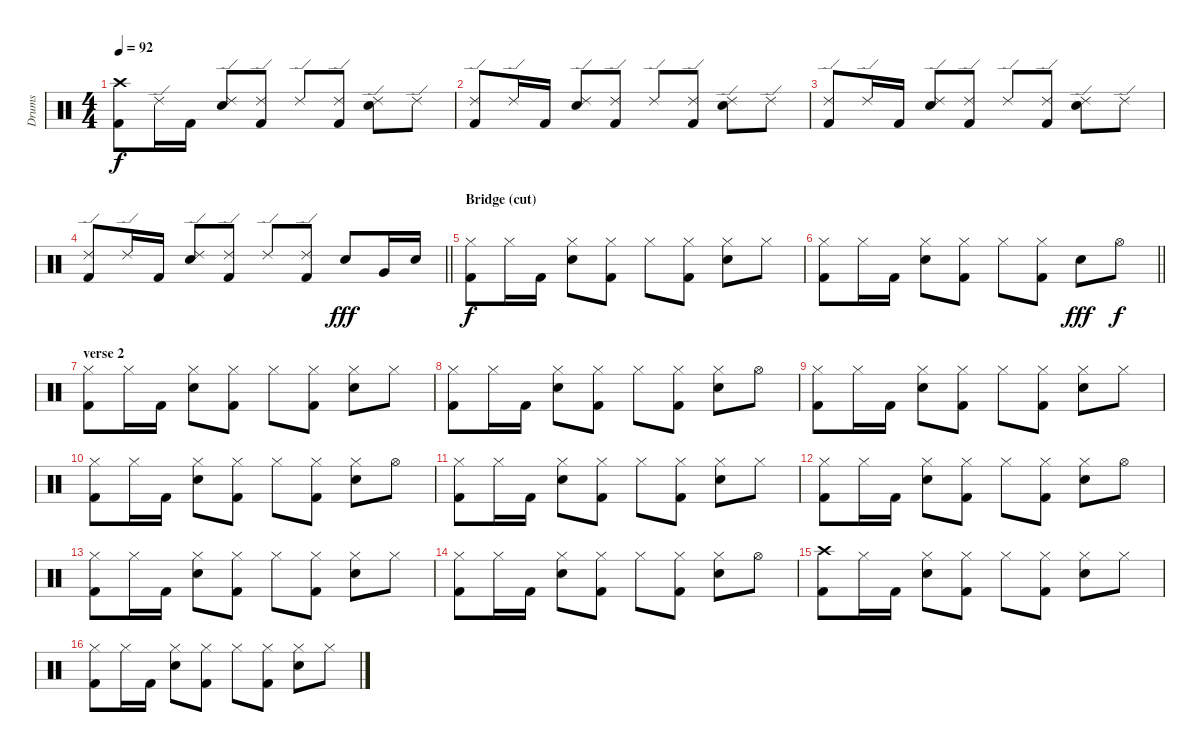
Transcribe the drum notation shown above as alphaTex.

\track ("Drums" "Drums") {instrument percussion}
\staff {score}
\articulation defaults
\ts (4 4)
\tempo 92
\clef neutral
\ks c
("Crash high (hit)" "Kick (hit) 2").8{dy f} "Ride (edge) 2".16 "Kick (hit) 2".16 ("Ride (edge) 2" "Electric Snare (hit)").8 ("Ride (edge) 2" "Kick (hit) 2").8 "Ride (edge) 2".8 ("Ride (edge) 2" "Kick (hit) 2").8 ("Ride (edge) 2" "Electric Snare (hit)").8 "Ride (edge) 2".8 |
("Ride (edge) 2" "Kick (hit) 2").8 "Ride (edge) 2".16 "Kick (hit) 2".16 ("Ride (edge) 2" "Electric Snare (hit)").8 ("Ride (edge) 2" "Kick (hit) 2").8 "Ride (edge) 2".8 ("Ride (edge) 2" "Kick (hit) 2").8 ("Ride (edge) 2" "Electric Snare (hit)").8 "Ride (edge) 2".8 |
("Ride (edge) 2" "Kick (hit) 2").8 "Ride (edge) 2".16 "Kick (hit) 2".16 ("Ride (edge) 2" "Electric Snare (hit)").8 ("Ride (edge) 2" "Kick (hit) 2").8 "Ride (edge) 2".8 ("Ride (edge) 2" "Kick (hit) 2").8 ("Ride (edge) 2" "Electric Snare (hit)").8 "Ride (edge) 2".8 |
\barLineRight lightlight
("Ride (edge) 2" "Kick (hit) 2").8 "Ride (edge) 2".16 "Kick (hit) 2".16 ("Ride (edge) 2" "Electric Snare (hit)").8 ("Ride (edge) 2" "Kick (hit) 2").8 "Ride (edge) 2".8 ("Ride (edge) 2" "Kick (hit) 2").8 "Electric Snare (hit)".8{dy fff} "Very Low Tom (hit)".16 "Electric Snare (hit)".16 |
\section ("" "Bridge (cut)")
("Hi-Hat (closed)" "Kick (hit) 2").8{dy f} "Hi-Hat (closed)".16 "Kick (hit) 2".16 ("Hi-Hat (closed)" "Electric Snare (hit)").8 ("Hi-Hat (closed)" "Kick (hit) 2").8 "Hi-Hat (closed)".8 ("Hi-Hat (closed)" "Kick (hit) 2").8 ("Hi-Hat (closed)" "Electric Snare (hit)").8 "Hi-Hat (closed)".8 |
\barLineRight lightlight
("Hi-Hat (closed)" "Kick (hit) 2").8 "Hi-Hat (closed)".16 "Kick (hit) 2".16 ("Hi-Hat (closed)" "Electric Snare (hit)").8 ("Hi-Hat (closed)" "Kick (hit) 2").8 "Hi-Hat (closed)".8 ("Hi-Hat (closed)" "Kick (hit) 2").8 "Electric Snare (hit)".8{dy fff} "Hi-Hat (open)".8{dy f} |
\section ("" "verse 2")
("Hi-Hat (closed)" "Kick (hit) 2").8 "Hi-Hat (closed)".16 "Kick (hit) 2".16 ("Hi-Hat (closed)" "Electric Snare (hit)").8 ("Hi-Hat (closed)" "Kick (hit) 2").8 "Hi-Hat (closed)".8 ("Hi-Hat (closed)" "Kick (hit) 2").8 ("Hi-Hat (closed)" "Electric Snare (hit)").8 "Hi-Hat (closed)".8 |
("Hi-Hat (closed)" "Kick (hit) 2").8 "Hi-Hat (closed)".16 "Kick (hit) 2".16 ("Hi-Hat (closed)" "Electric Snare (hit)").8 ("Hi-Hat (closed)" "Kick (hit) 2").8 "Hi-Hat (closed)".8 ("Hi-Hat (closed)" "Kick (hit) 2").8 ("Hi-Hat (closed)" "Electric Snare (hit)").8 "Hi-Hat (open)".8 |
("Hi-Hat (closed)" "Kick (hit) 2").8 "Hi-Hat (closed)".16 "Kick (hit) 2".16 ("Hi-Hat (closed)" "Electric Snare (hit)").8 ("Hi-Hat (closed)" "Kick (hit) 2").8 "Hi-Hat (closed)".8 ("Hi-Hat (closed)" "Kick (hit) 2").8 ("Hi-Hat (closed)" "Electric Snare (hit)").8 "Hi-Hat (closed)".8 |
("Hi-Hat (closed)" "Kick (hit) 2").8 "Hi-Hat (closed)".16 "Kick (hit) 2".16 ("Hi-Hat (closed)" "Electric Snare (hit)").8 ("Hi-Hat (closed)" "Kick (hit) 2").8 "Hi-Hat (closed)".8 ("Hi-Hat (closed)" "Kick (hit) 2").8 ("Hi-Hat (closed)" "Electric Snare (hit)").8 "Hi-Hat (open)".8 |
("Hi-Hat (closed)" "Kick (hit) 2").8 "Hi-Hat (closed)".16 "Kick (hit) 2".16 ("Hi-Hat (closed)" "Electric Snare (hit)").8 ("Hi-Hat (closed)" "Kick (hit) 2").8 "Hi-Hat (closed)".8 ("Hi-Hat (closed)" "Kick (hit) 2").8 ("Hi-Hat (closed)" "Electric Snare (hit)").8 "Hi-Hat (closed)".8 |
("Hi-Hat (closed)" "Kick (hit) 2").8 "Hi-Hat (closed)".16 "Kick (hit) 2".16 ("Hi-Hat (closed)" "Electric Snare (hit)").8 ("Hi-Hat (closed)" "Kick (hit) 2").8 "Hi-Hat (closed)".8 ("Hi-Hat (closed)" "Kick (hit) 2").8 ("Hi-Hat (closed)" "Electric Snare (hit)").8 "Hi-Hat (open)".8 |
("Hi-Hat (closed)" "Kick (hit) 2").8 "Hi-Hat (closed)".16 "Kick (hit) 2".16 ("Hi-Hat (closed)" "Electric Snare (hit)").8 ("Hi-Hat (closed)" "Kick (hit) 2").8 "Hi-Hat (closed)".8 ("Hi-Hat (closed)" "Kick (hit) 2").8 ("Hi-Hat (closed)" "Electric Snare (hit)").8 "Hi-Hat (closed)".8 |
("Hi-Hat (closed)" "Kick (hit) 2").8 "Hi-Hat (closed)".16 "Kick (hit) 2".16 ("Hi-Hat (closed)" "Electric Snare (hit)").8 ("Hi-Hat (closed)" "Kick (hit) 2").8 "Hi-Hat (closed)".8 ("Hi-Hat (closed)" "Kick (hit) 2").8 ("Hi-Hat (closed)" "Electric Snare (hit)").8 "Hi-Hat (open)".8 |
("Crash high (hit)" "Kick (hit) 2").8 "Hi-Hat (closed)".16 "Kick (hit) 2".16 ("Hi-Hat (closed)" "Electric Snare (hit)").8 ("Hi-Hat (closed)" "Kick (hit) 2").8 "Hi-Hat (closed)".8 ("Hi-Hat (closed)" "Kick (hit) 2").8 ("Hi-Hat (closed)" "Electric Snare (hit)").8 "Hi-Hat (closed)".8 |
("Hi-Hat (closed)" "Kick (hit) 2").8 "Hi-Hat (closed)".16 "Kick (hit) 2".16 ("Hi-Hat (closed)" "Electric Snare (hit)").8 ("Hi-Hat (closed)" "Kick (hit) 2").8 "Hi-Hat (closed)".8 ("Hi-Hat (closed)" "Kick (hit) 2").8 ("Hi-Hat (closed)" "Electric Snare (hit)").8 "Hi-Hat (closed)".8
